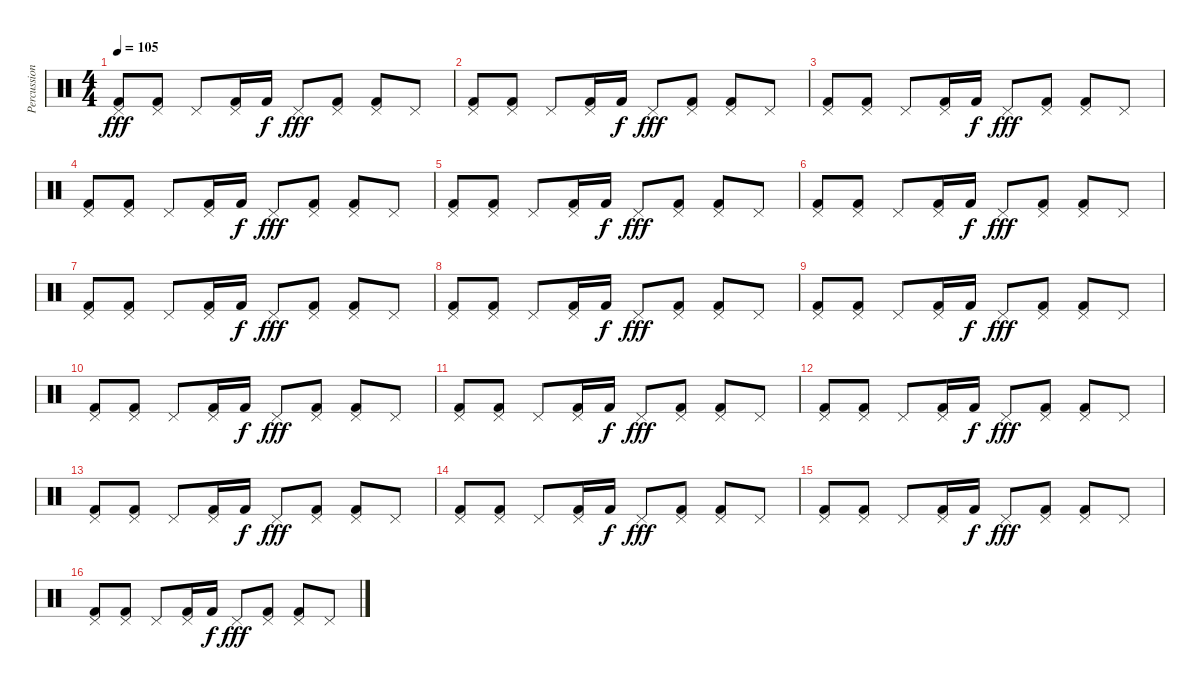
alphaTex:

\track ("Percussions" "Percussion") {instrument percussion}
\staff {score}
\articulation defaults
\ts (4 4)
\tempo 105
\clef neutral
\ks c
("Pedal Hi-Hat (hit)" "Kick (hit) 2").8{dy fff} ("Pedal Hi-Hat (hit)" "Kick (hit) 2").8 "Pedal Hi-Hat (hit)".8 ("Pedal Hi-Hat (hit)" "Kick (hit) 2").16 "Kick (hit) 2".16{dy f} "Pedal Hi-Hat (hit)".8{dy fff} ("Pedal Hi-Hat (hit)" "Kick (hit) 2").8 ("Pedal Hi-Hat (hit)" "Kick (hit) 2").8 "Pedal Hi-Hat (hit)".8 |
("Pedal Hi-Hat (hit)" "Kick (hit) 2").8 ("Pedal Hi-Hat (hit)" "Kick (hit) 2").8 "Pedal Hi-Hat (hit)".8 ("Pedal Hi-Hat (hit)" "Kick (hit) 2").16 "Kick (hit) 2".16{dy f} "Pedal Hi-Hat (hit)".8{dy fff} ("Pedal Hi-Hat (hit)" "Kick (hit) 2").8 ("Pedal Hi-Hat (hit)" "Kick (hit) 2").8 "Pedal Hi-Hat (hit)".8 |
("Pedal Hi-Hat (hit)" "Kick (hit) 2").8 ("Pedal Hi-Hat (hit)" "Kick (hit) 2").8 "Pedal Hi-Hat (hit)".8 ("Pedal Hi-Hat (hit)" "Kick (hit) 2").16 "Kick (hit) 2".16{dy f} "Pedal Hi-Hat (hit)".8{dy fff} ("Pedal Hi-Hat (hit)" "Kick (hit) 2").8 ("Pedal Hi-Hat (hit)" "Kick (hit) 2").8 "Pedal Hi-Hat (hit)".8 |
("Pedal Hi-Hat (hit)" "Kick (hit) 2").8 ("Pedal Hi-Hat (hit)" "Kick (hit) 2").8 "Pedal Hi-Hat (hit)".8 ("Pedal Hi-Hat (hit)" "Kick (hit) 2").16 "Kick (hit) 2".16{dy f} "Pedal Hi-Hat (hit)".8{dy fff} ("Pedal Hi-Hat (hit)" "Kick (hit) 2").8 ("Pedal Hi-Hat (hit)" "Kick (hit) 2").8 "Pedal Hi-Hat (hit)".8 |
("Pedal Hi-Hat (hit)" "Kick (hit) 2").8 ("Pedal Hi-Hat (hit)" "Kick (hit) 2").8 "Pedal Hi-Hat (hit)".8 ("Pedal Hi-Hat (hit)" "Kick (hit) 2").16 "Kick (hit) 2".16{dy f} "Pedal Hi-Hat (hit)".8{dy fff} ("Pedal Hi-Hat (hit)" "Kick (hit) 2").8 ("Pedal Hi-Hat (hit)" "Kick (hit) 2").8 "Pedal Hi-Hat (hit)".8 |
("Pedal Hi-Hat (hit)" "Kick (hit) 2").8 ("Pedal Hi-Hat (hit)" "Kick (hit) 2").8 "Pedal Hi-Hat (hit)".8 ("Pedal Hi-Hat (hit)" "Kick (hit) 2").16 "Kick (hit) 2".16{dy f} "Pedal Hi-Hat (hit)".8{dy fff} ("Pedal Hi-Hat (hit)" "Kick (hit) 2").8 ("Pedal Hi-Hat (hit)" "Kick (hit) 2").8 "Pedal Hi-Hat (hit)".8 |
("Pedal Hi-Hat (hit)" "Kick (hit) 2").8 ("Pedal Hi-Hat (hit)" "Kick (hit) 2").8 "Pedal Hi-Hat (hit)".8 ("Pedal Hi-Hat (hit)" "Kick (hit) 2").16 "Kick (hit) 2".16{dy f} "Pedal Hi-Hat (hit)".8{dy fff} ("Pedal Hi-Hat (hit)" "Kick (hit) 2").8 ("Pedal Hi-Hat (hit)" "Kick (hit) 2").8 "Pedal Hi-Hat (hit)".8 |
("Pedal Hi-Hat (hit)" "Kick (hit) 2").8 ("Pedal Hi-Hat (hit)" "Kick (hit) 2").8 "Pedal Hi-Hat (hit)".8 ("Pedal Hi-Hat (hit)" "Kick (hit) 2").16 "Kick (hit) 2".16{dy f} "Pedal Hi-Hat (hit)".8{dy fff} ("Pedal Hi-Hat (hit)" "Kick (hit) 2").8 ("Pedal Hi-Hat (hit)" "Kick (hit) 2").8 "Pedal Hi-Hat (hit)".8 |
("Pedal Hi-Hat (hit)" "Kick (hit) 2").8 ("Pedal Hi-Hat (hit)" "Kick (hit) 2").8 "Pedal Hi-Hat (hit)".8 ("Pedal Hi-Hat (hit)" "Kick (hit) 2").16 "Kick (hit) 2".16{dy f} "Pedal Hi-Hat (hit)".8{dy fff} ("Pedal Hi-Hat (hit)" "Kick (hit) 2").8 ("Pedal Hi-Hat (hit)" "Kick (hit) 2").8 "Pedal Hi-Hat (hit)".8 |
("Pedal Hi-Hat (hit)" "Kick (hit) 2").8 ("Pedal Hi-Hat (hit)" "Kick (hit) 2").8 "Pedal Hi-Hat (hit)".8 ("Pedal Hi-Hat (hit)" "Kick (hit) 2").16 "Kick (hit) 2".16{dy f} "Pedal Hi-Hat (hit)".8{dy fff} ("Pedal Hi-Hat (hit)" "Kick (hit) 2").8 ("Pedal Hi-Hat (hit)" "Kick (hit) 2").8 "Pedal Hi-Hat (hit)".8 |
("Pedal Hi-Hat (hit)" "Kick (hit) 2").8 ("Pedal Hi-Hat (hit)" "Kick (hit) 2").8 "Pedal Hi-Hat (hit)".8 ("Pedal Hi-Hat (hit)" "Kick (hit) 2").16 "Kick (hit) 2".16{dy f} "Pedal Hi-Hat (hit)".8{dy fff} ("Pedal Hi-Hat (hit)" "Kick (hit) 2").8 ("Pedal Hi-Hat (hit)" "Kick (hit) 2").8 "Pedal Hi-Hat (hit)".8 |
("Pedal Hi-Hat (hit)" "Kick (hit) 2").8 ("Pedal Hi-Hat (hit)" "Kick (hit) 2").8 "Pedal Hi-Hat (hit)".8 ("Pedal Hi-Hat (hit)" "Kick (hit) 2").16 "Kick (hit) 2".16{dy f} "Pedal Hi-Hat (hit)".8{dy fff} ("Pedal Hi-Hat (hit)" "Kick (hit) 2").8 ("Pedal Hi-Hat (hit)" "Kick (hit) 2").8 "Pedal Hi-Hat (hit)".8 |
("Pedal Hi-Hat (hit)" "Kick (hit) 2").8 ("Pedal Hi-Hat (hit)" "Kick (hit) 2").8 "Pedal Hi-Hat (hit)".8 ("Pedal Hi-Hat (hit)" "Kick (hit) 2").16 "Kick (hit) 2".16{dy f} "Pedal Hi-Hat (hit)".8{dy fff} ("Pedal Hi-Hat (hit)" "Kick (hit) 2").8 ("Pedal Hi-Hat (hit)" "Kick (hit) 2").8 "Pedal Hi-Hat (hit)".8 |
("Pedal Hi-Hat (hit)" "Kick (hit) 2").8 ("Pedal Hi-Hat (hit)" "Kick (hit) 2").8 "Pedal Hi-Hat (hit)".8 ("Pedal Hi-Hat (hit)" "Kick (hit) 2").16 "Kick (hit) 2".16{dy f} "Pedal Hi-Hat (hit)".8{dy fff} ("Pedal Hi-Hat (hit)" "Kick (hit) 2").8 ("Pedal Hi-Hat (hit)" "Kick (hit) 2").8 "Pedal Hi-Hat (hit)".8 |
("Pedal Hi-Hat (hit)" "Kick (hit) 2").8 ("Pedal Hi-Hat (hit)" "Kick (hit) 2").8 "Pedal Hi-Hat (hit)".8 ("Pedal Hi-Hat (hit)" "Kick (hit) 2").16 "Kick (hit) 2".16{dy f} "Pedal Hi-Hat (hit)".8{dy fff} ("Pedal Hi-Hat (hit)" "Kick (hit) 2").8 ("Pedal Hi-Hat (hit)" "Kick (hit) 2").8 "Pedal Hi-Hat (hit)".8 |
("Pedal Hi-Hat (hit)" "Kick (hit) 2").8 ("Pedal Hi-Hat (hit)" "Kick (hit) 2").8 "Pedal Hi-Hat (hit)".8 ("Pedal Hi-Hat (hit)" "Kick (hit) 2").16 "Kick (hit) 2".16{dy f} "Pedal Hi-Hat (hit)".8{dy fff} ("Pedal Hi-Hat (hit)" "Kick (hit) 2").8 ("Pedal Hi-Hat (hit)" "Kick (hit) 2").8 "Pedal Hi-Hat (hit)".8
